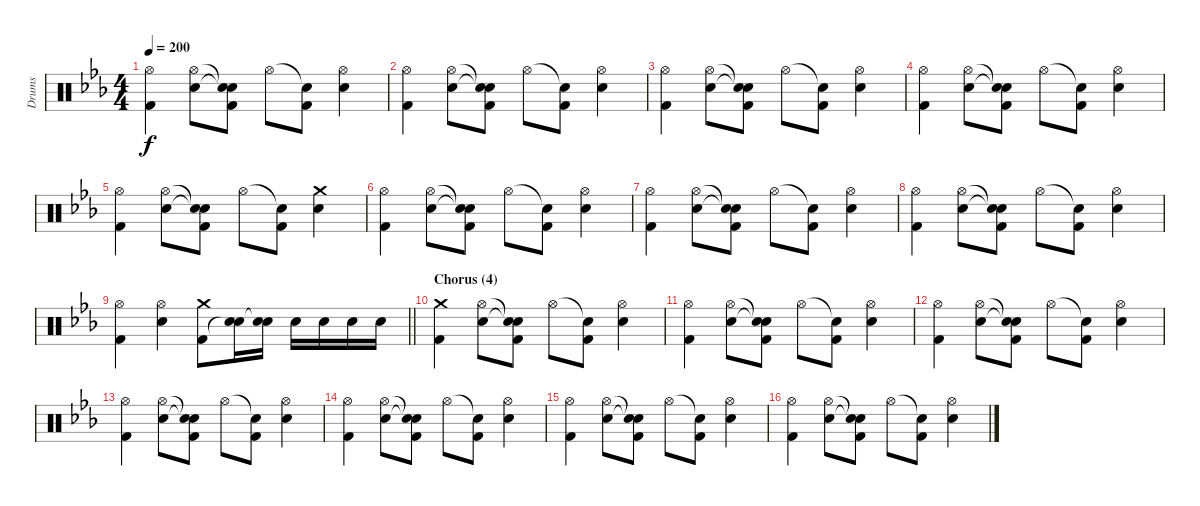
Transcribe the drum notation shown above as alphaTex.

\track ("Drums" "Drums") {instrument percussion}
\staff {score}
\articulation defaults
\ts (4 4)
\tempo 200
\clef neutral
\ks cminor
("Hi-Hat (open)" "Kick (hit) 2").4{dy f} ("Hi-Hat (open)" "Electric Snare (hit)").8 ("Snare (hit)"{t} "Snare (hit)"{t} "Kick (hit) 2").8 "Hi-Hat (open)".8 ("Snare (hit)"{t} "Kick (hit) 2").8 ("Hi-Hat (open)" "Electric Snare (hit)").4 |
("Hi-Hat (open)" "Kick (hit) 2").4 ("Hi-Hat (open)" "Electric Snare (hit)").8 ("Snare (hit)"{t} "Snare (hit)"{t} "Kick (hit) 2").8 "Hi-Hat (open)".8 ("Snare (hit)"{t} "Kick (hit) 2").8 ("Hi-Hat (open)" "Electric Snare (hit)").4 |
("Hi-Hat (open)" "Kick (hit) 2").4 ("Hi-Hat (open)" "Electric Snare (hit)").8 ("Snare (hit)"{t} "Snare (hit)"{t} "Kick (hit) 2").8 "Hi-Hat (open)".8 ("Snare (hit)"{t} "Kick (hit) 2").8 ("Hi-Hat (open)" "Electric Snare (hit)").4 |
("Hi-Hat (open)" "Kick (hit) 2").4 ("Hi-Hat (open)" "Electric Snare (hit)").8 ("Snare (hit)"{t} "Snare (hit)"{t} "Kick (hit) 2").8 "Hi-Hat (open)".8 ("Snare (hit)"{t} "Kick (hit) 2").8 ("Hi-Hat (open)" "Electric Snare (hit)").4 |
("Hi-Hat (open)" "Kick (hit) 2").4 ("Hi-Hat (open)" "Electric Snare (hit)").8 ("Snare (hit)"{t} "Snare (hit)"{t} "Kick (hit) 2").8 "Hi-Hat (open)".8 ("Snare (hit)"{t} "Kick (hit) 2").8 ("Crash medium (hit)" "Electric Snare (hit)").4 |
("Hi-Hat (open)" "Kick (hit) 2").4 ("Hi-Hat (open)" "Electric Snare (hit)").8 ("Snare (hit)"{t} "Snare (hit)"{t} "Kick (hit) 2").8 "Hi-Hat (open)".8 ("Snare (hit)"{t} "Kick (hit) 2").8 ("Hi-Hat (open)" "Electric Snare (hit)").4 |
("Hi-Hat (open)" "Kick (hit) 2").4 ("Hi-Hat (open)" "Electric Snare (hit)").8 ("Snare (hit)"{t} "Snare (hit)"{t} "Kick (hit) 2").8 "Hi-Hat (open)".8 ("Snare (hit)"{t} "Kick (hit) 2").8 ("Hi-Hat (open)" "Electric Snare (hit)").4 |
("Hi-Hat (open)" "Kick (hit) 2").4 ("Hi-Hat (open)" "Electric Snare (hit)").8 ("Snare (hit)"{t} "Snare (hit)"{t} "Kick (hit) 2").8 "Hi-Hat (open)".8 ("Snare (hit)"{t} "Kick (hit) 2").8 ("Hi-Hat (open)" "Electric Snare (hit)").4 |
\barLineRight lightlight
("Hi-Hat (open)" "Kick (hit) 2").4 ("Hi-Hat (open)" "Electric Snare (hit)").4 ("Crash medium (hit)" "Kick (hit) 2").8 ("Electric Snare (hit)" "Snare (hit)"{t}).16 ("Electric Snare (hit)" "Snare (hit)"{t}).16 "Electric Snare (hit)".16 "Electric Snare (hit)".16 "Electric Snare (hit)".16 "Electric Snare (hit)".16 |
\section ("" "Chorus (4)")
("Crash medium (hit)" "Kick (hit) 2").4 ("Hi-Hat (open)" "Electric Snare (hit)").8 ("Snare (hit)"{t} "Snare (hit)"{t} "Kick (hit) 2").8 "Hi-Hat (open)".8 ("Snare (hit)"{t} "Kick (hit) 2").8 ("Hi-Hat (open)" "Electric Snare (hit)").4 |
("Hi-Hat (open)" "Kick (hit) 2").4 ("Hi-Hat (open)" "Electric Snare (hit)").8 ("Snare (hit)"{t} "Snare (hit)"{t} "Kick (hit) 2").8 "Hi-Hat (open)".8 ("Snare (hit)"{t} "Kick (hit) 2").8 ("Hi-Hat (open)" "Electric Snare (hit)").4 |
("Hi-Hat (open)" "Kick (hit) 2").4 ("Hi-Hat (open)" "Electric Snare (hit)").8 ("Snare (hit)"{t} "Snare (hit)"{t} "Kick (hit) 2").8 "Hi-Hat (open)".8 ("Snare (hit)"{t} "Kick (hit) 2").8 ("Hi-Hat (open)" "Electric Snare (hit)").4 |
("Hi-Hat (open)" "Kick (hit) 2").4 ("Hi-Hat (open)" "Electric Snare (hit)").8 ("Snare (hit)"{t} "Snare (hit)"{t} "Kick (hit) 2").8 "Hi-Hat (open)".8 ("Snare (hit)"{t} "Kick (hit) 2").8 ("Hi-Hat (open)" "Electric Snare (hit)").4 |
("Hi-Hat (open)" "Kick (hit) 2").4 ("Hi-Hat (open)" "Electric Snare (hit)").8 ("Snare (hit)"{t} "Snare (hit)"{t} "Kick (hit) 2").8 "Hi-Hat (open)".8 ("Snare (hit)"{t} "Kick (hit) 2").8 ("Hi-Hat (open)" "Electric Snare (hit)").4 |
("Hi-Hat (open)" "Kick (hit) 2").4 ("Hi-Hat (open)" "Electric Snare (hit)").8 ("Snare (hit)"{t} "Snare (hit)"{t} "Kick (hit) 2").8 "Hi-Hat (open)".8 ("Snare (hit)"{t} "Kick (hit) 2").8 ("Hi-Hat (open)" "Electric Snare (hit)").4 |
("Hi-Hat (open)" "Kick (hit) 2").4 ("Hi-Hat (open)" "Electric Snare (hit)").8 ("Snare (hit)"{t} "Snare (hit)"{t} "Kick (hit) 2").8 "Hi-Hat (open)".8 ("Snare (hit)"{t} "Kick (hit) 2").8 ("Hi-Hat (open)" "Electric Snare (hit)").4
